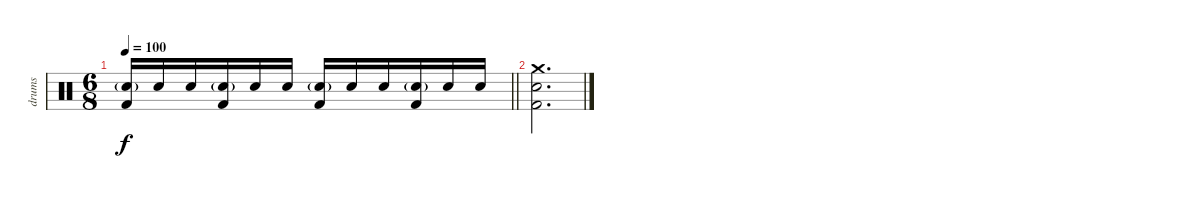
\track ("drums" "drums") {instrument percussion}
\staff {score}
\articulation defaults
\ts (6 8)
\tempo 100
\clef neutral
\barLineRight lightlight
\ks c
("Electric Snare (hit)"{g} "Kick (hit) 2").16{dy f} "Electric Snare (hit)".16 "Electric Snare (hit)".16 ("Electric Snare (hit)"{g} "Kick (hit) 2").16 "Electric Snare (hit)".16 "Electric Snare (hit)".16 ("Electric Snare (hit)"{g} "Kick (hit) 2").16 "Electric Snare (hit)".16 "Electric Snare (hit)".16 ("Electric Snare (hit)"{g} "Kick (hit) 2").16 "Electric Snare (hit)".16 "Electric Snare (hit)".16 |
("Crash medium (hit)" "Electric Snare (hit)" "Kick (hit) 2").2{d}
